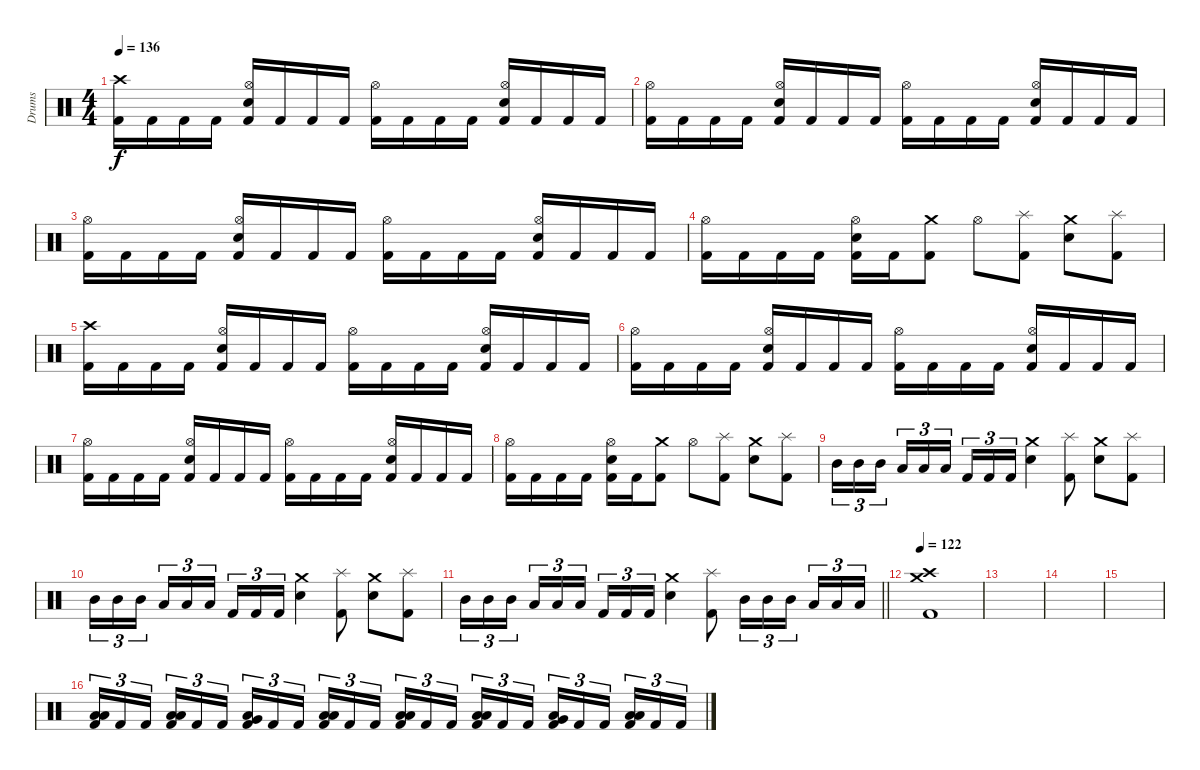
\track ("Drums" "Drums") {instrument percussion}
\staff {score}
\articulation defaults
\ts (4 4)
\tempo 136
\clef neutral
\ks c
("Crash high (hit)" "Kick (hit) 2").16{dy f} "Kick (hit) 2".16 "Kick (hit) 2".16 "Kick (hit) 2".16 ("Hi-Hat (open)" "Electric Snare (hit)" "Kick (hit) 2").16 "Kick (hit) 2".16 "Kick (hit) 2".16 "Kick (hit) 2".16 ("Hi-Hat (open)" "Kick (hit) 2").16 "Kick (hit) 2".16 "Kick (hit) 2".16 "Kick (hit) 2".16 ("Hi-Hat (open)" "Electric Snare (hit)" "Kick (hit) 2").16 "Kick (hit) 2".16 "Kick (hit) 2".16 "Kick (hit) 2".16 |
("Hi-Hat (open)" "Kick (hit) 2").16 "Kick (hit) 2".16 "Kick (hit) 2".16 "Kick (hit) 2".16 ("Hi-Hat (open)" "Electric Snare (hit)" "Kick (hit) 2").16 "Kick (hit) 2".16 "Kick (hit) 2".16 "Kick (hit) 2".16 ("Hi-Hat (open)" "Kick (hit) 2").16 "Kick (hit) 2".16 "Kick (hit) 2".16 "Kick (hit) 2".16 ("Hi-Hat (open)" "Electric Snare (hit)" "Kick (hit) 2").16 "Kick (hit) 2".16 "Kick (hit) 2".16 "Kick (hit) 2".16 |
("Hi-Hat (open)" "Kick (hit) 2").16 "Kick (hit) 2".16 "Kick (hit) 2".16 "Kick (hit) 2".16 ("Hi-Hat (open)" "Electric Snare (hit)" "Kick (hit) 2").16 "Kick (hit) 2".16 "Kick (hit) 2".16 "Kick (hit) 2".16 ("Hi-Hat (open)" "Kick (hit) 2").16 "Kick (hit) 2".16 "Kick (hit) 2".16 "Kick (hit) 2".16 ("Hi-Hat (open)" "Electric Snare (hit)" "Kick (hit) 2").16 "Kick (hit) 2".16 "Kick (hit) 2".16 "Kick (hit) 2".16 |
("Hi-Hat (open)" "Kick (hit) 2").16 "Kick (hit) 2".16 "Kick (hit) 2".16 "Kick (hit) 2".16 ("Hi-Hat (open)" "Electric Snare (hit)" "Kick (hit) 2").16 "Kick (hit) 2".16 ("Crash medium (hit)" "Kick (hit) 2").8 "Hi-Hat (open)".8 ("Splash (hit)" "Kick (hit) 2").8 ("Crash medium (hit)" "Electric Snare (hit)").8 ("Splash (hit)" "Kick (hit) 2").8 |
("Crash high (hit)" "Kick (hit) 2").16 "Kick (hit) 2".16 "Kick (hit) 2".16 "Kick (hit) 2".16 ("Hi-Hat (open)" "Electric Snare (hit)" "Kick (hit) 2").16 "Kick (hit) 2".16 "Kick (hit) 2".16 "Kick (hit) 2".16 ("Hi-Hat (open)" "Kick (hit) 2").16 "Kick (hit) 2".16 "Kick (hit) 2".16 "Kick (hit) 2".16 ("Hi-Hat (open)" "Electric Snare (hit)" "Kick (hit) 2").16 "Kick (hit) 2".16 "Kick (hit) 2".16 "Kick (hit) 2".16 |
("Hi-Hat (open)" "Kick (hit) 2").16 "Kick (hit) 2".16 "Kick (hit) 2".16 "Kick (hit) 2".16 ("Hi-Hat (open)" "Electric Snare (hit)" "Kick (hit) 2").16 "Kick (hit) 2".16 "Kick (hit) 2".16 "Kick (hit) 2".16 ("Hi-Hat (open)" "Kick (hit) 2").16 "Kick (hit) 2".16 "Kick (hit) 2".16 "Kick (hit) 2".16 ("Hi-Hat (open)" "Electric Snare (hit)" "Kick (hit) 2").16 "Kick (hit) 2".16 "Kick (hit) 2".16 "Kick (hit) 2".16 |
("Hi-Hat (open)" "Kick (hit) 2").16 "Kick (hit) 2".16 "Kick (hit) 2".16 "Kick (hit) 2".16 ("Hi-Hat (open)" "Electric Snare (hit)" "Kick (hit) 2").16 "Kick (hit) 2".16 "Kick (hit) 2".16 "Kick (hit) 2".16 ("Hi-Hat (open)" "Kick (hit) 2").16 "Kick (hit) 2".16 "Kick (hit) 2".16 "Kick (hit) 2".16 ("Hi-Hat (open)" "Electric Snare (hit)" "Kick (hit) 2").16 "Kick (hit) 2".16 "Kick (hit) 2".16 "Kick (hit) 2".16 |
("Hi-Hat (open)" "Kick (hit) 2").16 "Kick (hit) 2".16 "Kick (hit) 2".16 "Kick (hit) 2".16 ("Hi-Hat (open)" "Electric Snare (hit)" "Kick (hit) 2").16 "Kick (hit) 2".16 ("Crash medium (hit)" "Kick (hit) 2").8 "Hi-Hat (open)".8 ("Splash (hit)" "Kick (hit) 2").8 ("Crash medium (hit)" "Electric Snare (hit)").8 ("Splash (hit)" "Kick (hit) 2").8 |
"Mid Tom (hit)".16{tu (3 2)} "Mid Tom (hit)".16{tu (3 2)} "Mid Tom (hit)".16{tu (3 2)} "Low Tom (hit)".16{tu (3 2)} "Low Tom (hit)".16{tu (3 2)} "Low Tom (hit)".16{tu (3 2)} "Kick (hit) 2".16{tu (3 2)} "Kick (hit) 2".16{tu (3 2)} "Kick (hit) 2".16{tu (3 2)} ("Crash medium (hit)" "Electric Snare (hit)").4 ("Splash (hit)" "Kick (hit) 2").8 ("Crash medium (hit)" "Electric Snare (hit)").8 ("Splash (hit)" "Kick (hit) 2").8 |
"Mid Tom (hit)".16{tu (3 2)} "Mid Tom (hit)".16{tu (3 2)} "Mid Tom (hit)".16{tu (3 2)} "Low Tom (hit)".16{tu (3 2)} "Low Tom (hit)".16{tu (3 2)} "Low Tom (hit)".16{tu (3 2)} "Kick (hit) 2".16{tu (3 2)} "Kick (hit) 2".16{tu (3 2)} "Kick (hit) 2".16{tu (3 2)} ("Crash medium (hit)" "Electric Snare (hit)").4 ("Splash (hit)" "Kick (hit) 2").8 ("Crash medium (hit)" "Electric Snare (hit)").8 ("Splash (hit)" "Kick (hit) 2").8 |
\barLineRight lightlight "Mid Tom (hit)".16{tu (3 2)} "Mid Tom (hit)".16{tu (3 2)} "Mid Tom (hit)".16{tu (3 2)} "Low Tom (hit)".16{tu (3 2)} "Low Tom (hit)".16{tu (3 2)} "Low Tom (hit)".16{tu (3 2)} "Kick (hit) 2".16{tu (3 2)} "Kick (hit) 2".16{tu (3 2)} "Kick (hit) 2".16{tu (3 2)}
("Crash medium (hit)" "Electric Snare (hit)").4 ("Splash (hit)" "Kick (hit) 2").8 "Mid Tom (hit)".16{tu (3 2)} "Mid Tom (hit)".16{tu (3 2)} "Mid Tom (hit)".16{tu (3 2)} "Low Tom (hit)".16{tu (3 2)} "Low Tom (hit)".16{tu (3 2)} "Low Tom (hit)".16{tu (3 2)} |
\section ("" "")
\tempo 122
("Crash medium (hit)" "Crash high (hit)" "Kick (hit) 2").1 |
|
|
|
("Low Tom (hit)" "Low Floor Tom (hit)" "Kick (hit) 2").16{tu (3 2)} "Kick (hit) 2".16{tu (3 2)} "Kick (hit) 2".16{tu (3 2)} ("Low Tom (hit)" "Low Floor Tom (hit)" "Kick (hit) 2").16{tu (3 2)} "Kick (hit) 2".16{tu (3 2)} "Kick (hit) 2".16{tu (3 2)} ("Very Low Tom (hit)" "Low Floor Tom (hit)" "Kick (hit) 2").16{tu (3 2)} "Kick (hit) 2".16{tu (3 2)} "Kick (hit) 2".16{tu (3 2)} ("Low Floor Tom (hit)" "Low Floor Tom (hit)" "Kick (hit) 2").16{tu (3 2)} "Kick (hit) 2".16{tu (3 2)} "Kick (hit) 2".16{tu (3 2)} ("Low Tom (hit)" "Low Floor Tom (hit)" "Kick (hit) 2").16{tu (3 2)} "Kick (hit) 2".16{tu (3 2)} "Kick (hit) 2".16{tu (3 2)} ("Low Tom (hit)" "Low Floor Tom (hit)" "Kick (hit) 2").16{tu (3 2)} "Kick (hit) 2".16{tu (3 2)} "Kick (hit) 2".16{tu (3 2)} ("Very Low Tom (hit)" "Low Floor Tom (hit)" "Kick (hit) 2").16{tu (3 2)} "Kick (hit) 2".16{tu (3 2)} "Kick (hit) 2".16{tu (3 2)} ("Low Floor Tom (hit)" "Low Floor Tom (hit)" "Kick (hit) 2").16{tu (3 2)} "Kick (hit) 2".16{tu (3 2)} "Kick (hit) 2".16{tu (3 2)}
